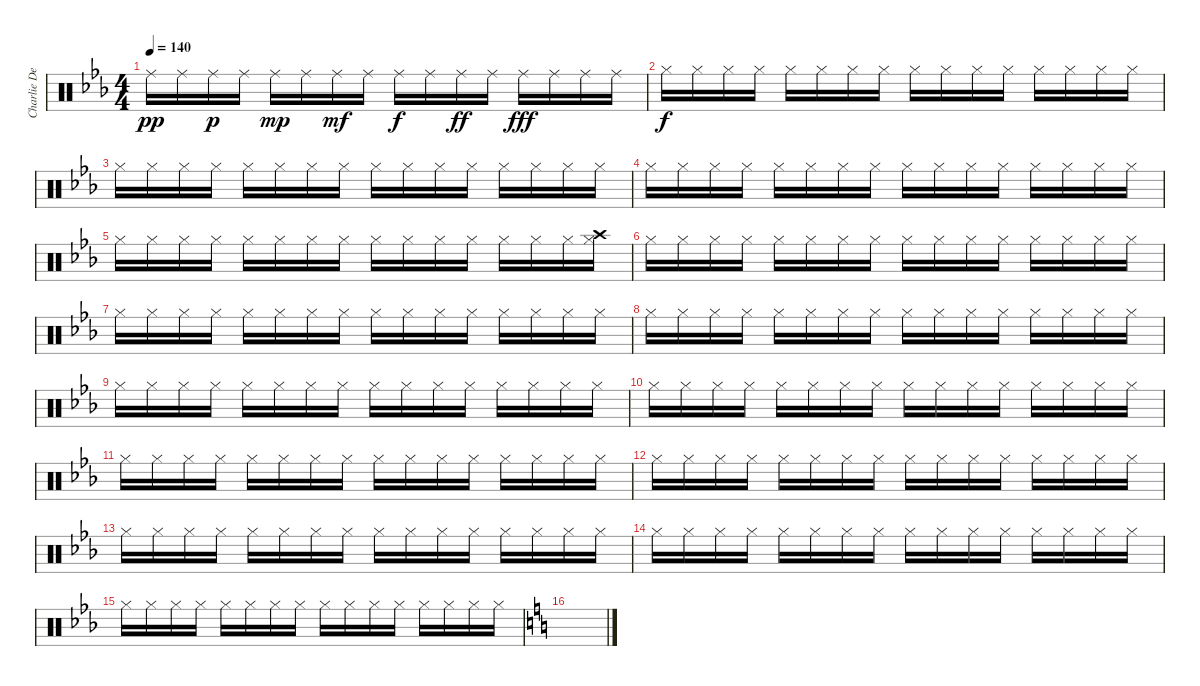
\track ("Charlie Devil" "Charlie De") {instrument percussion}
\staff {score}
\articulation defaults
\ts (4 4)
\tempo 140
\clef neutral
\ks eb "Ride (middle)".16{dy pp} "Ride (middle)".16 "Ride (middle)".16{dy p} "Ride (middle)".16 "Ride (middle)".16{dy mp} "Ride (middle)".16 "Ride (middle)".16{dy mf} "Ride (middle)".16 "Ride (middle)".16{dy f} "Ride (middle)".16 "Ride (middle)".16{dy ff} "Ride (middle)".16 "Ride (middle)".16{dy fff} "Ride (middle)".16 "Ride (middle)".16 "Ride (middle)".16
|
"Hi-Hat (closed)".16{dy f} "Hi-Hat (closed)".16 "Hi-Hat (closed)".16 "Hi-Hat (closed)".16 "Hi-Hat (closed)".16 "Hi-Hat (closed)".16 "Hi-Hat (closed)".16 "Hi-Hat (closed)".16 "Hi-Hat (closed)".16 "Hi-Hat (closed)".16 "Hi-Hat (closed)".16 "Hi-Hat (closed)".16 "Hi-Hat (closed)".16 "Hi-Hat (closed)".16 "Hi-Hat (closed)".16 "Hi-Hat (closed)".16 |
"Hi-Hat (closed)".16 "Hi-Hat (closed)".16 "Hi-Hat (closed)".16 "Hi-Hat (closed)".16 "Hi-Hat (closed)".16 "Hi-Hat (closed)".16 "Hi-Hat (closed)".16 "Hi-Hat (closed)".16 "Hi-Hat (closed)".16 "Hi-Hat (closed)".16 "Hi-Hat (closed)".16 "Hi-Hat (closed)".16 "Hi-Hat (closed)".16 "Hi-Hat (closed)".16 "Hi-Hat (closed)".16 "Hi-Hat (closed)".16 |
"Hi-Hat (closed)".16 "Hi-Hat (closed)".16 "Hi-Hat (closed)".16 "Hi-Hat (closed)".16 "Hi-Hat (closed)".16 "Hi-Hat (closed)".16 "Hi-Hat (closed)".16 "Hi-Hat (closed)".16 "Hi-Hat (closed)".16 "Hi-Hat (closed)".16 "Hi-Hat (closed)".16 "Hi-Hat (closed)".16 "Hi-Hat (closed)".16 "Hi-Hat (closed)".16 "Hi-Hat (closed)".16 "Hi-Hat (closed)".16 |
"Hi-Hat (closed)".16 "Hi-Hat (closed)".16 "Hi-Hat (closed)".16 "Hi-Hat (closed)".16 "Hi-Hat (closed)".16 "Hi-Hat (closed)".16 "Hi-Hat (closed)".16 "Hi-Hat (closed)".16 "Hi-Hat (closed)".16 "Hi-Hat (closed)".16 "Hi-Hat (closed)".16 "Hi-Hat (closed)".16 "Hi-Hat (closed)".16 "Hi-Hat (closed)".16 "Hi-Hat (closed)".16 ("Hi-Hat (closed)" "Crash high (hit)").16 |
"Hi-Hat (closed)".16 "Hi-Hat (closed)".16 "Hi-Hat (closed)".16 "Hi-Hat (closed)".16 "Hi-Hat (closed)".16 "Hi-Hat (closed)".16 "Hi-Hat (closed)".16 "Hi-Hat (closed)".16 "Hi-Hat (closed)".16 "Hi-Hat (closed)".16 "Hi-Hat (closed)".16 "Hi-Hat (closed)".16 "Hi-Hat (closed)".16 "Hi-Hat (closed)".16 "Hi-Hat (closed)".16 "Hi-Hat (closed)".16 |
"Hi-Hat (closed)".16 "Hi-Hat (closed)".16 "Hi-Hat (closed)".16 "Hi-Hat (closed)".16 "Hi-Hat (closed)".16 "Hi-Hat (closed)".16 "Hi-Hat (closed)".16 "Hi-Hat (closed)".16 "Hi-Hat (closed)".16 "Hi-Hat (closed)".16 "Hi-Hat (closed)".16 "Hi-Hat (closed)".16 "Hi-Hat (closed)".16 "Hi-Hat (closed)".16 "Hi-Hat (closed)".16 "Hi-Hat (closed)".16 |
"Hi-Hat (closed)".16 "Hi-Hat (closed)".16 "Hi-Hat (closed)".16 "Hi-Hat (closed)".16 "Hi-Hat (closed)".16 "Hi-Hat (closed)".16 "Hi-Hat (closed)".16 "Hi-Hat (closed)".16 "Hi-Hat (closed)".16 "Hi-Hat (closed)".16 "Hi-Hat (closed)".16 "Hi-Hat (closed)".16 "Hi-Hat (closed)".16 "Hi-Hat (closed)".16 "Hi-Hat (closed)".16 "Hi-Hat (closed)".16 |
"Hi-Hat (closed)".16 "Hi-Hat (closed)".16 "Hi-Hat (closed)".16 "Hi-Hat (closed)".16 "Hi-Hat (closed)".16 "Hi-Hat (closed)".16 "Hi-Hat (closed)".16 "Hi-Hat (closed)".16 "Hi-Hat (closed)".16 "Hi-Hat (closed)".16 "Hi-Hat (closed)".16 "Hi-Hat (closed)".16 "Hi-Hat (closed)".16 "Hi-Hat (closed)".16 "Hi-Hat (closed)".16 "Hi-Hat (closed)".16 |
"Hi-Hat (closed)".16 "Hi-Hat (closed)".16 "Hi-Hat (closed)".16 "Hi-Hat (closed)".16 "Hi-Hat (closed)".16 "Hi-Hat (closed)".16 "Hi-Hat (closed)".16 "Hi-Hat (closed)".16 "Hi-Hat (closed)".16 "Hi-Hat (closed)".16 "Hi-Hat (closed)".16 "Hi-Hat (closed)".16 "Hi-Hat (closed)".16 "Hi-Hat (closed)".16 "Hi-Hat (closed)".16 "Hi-Hat (closed)".16 |
"Hi-Hat (closed)".16 "Hi-Hat (closed)".16 "Hi-Hat (closed)".16 "Hi-Hat (closed)".16 "Hi-Hat (closed)".16 "Hi-Hat (closed)".16 "Hi-Hat (closed)".16 "Hi-Hat (closed)".16 "Hi-Hat (closed)".16 "Hi-Hat (closed)".16 "Hi-Hat (closed)".16 "Hi-Hat (closed)".16 "Hi-Hat (closed)".16 "Hi-Hat (closed)".16 "Hi-Hat (closed)".16 "Hi-Hat (closed)".16 |
"Hi-Hat (closed)".16 "Hi-Hat (closed)".16 "Hi-Hat (closed)".16 "Hi-Hat (closed)".16 "Hi-Hat (closed)".16 "Hi-Hat (closed)".16 "Hi-Hat (closed)".16 "Hi-Hat (closed)".16 "Hi-Hat (closed)".16 "Hi-Hat (closed)".16 "Hi-Hat (closed)".16 "Hi-Hat (closed)".16 "Hi-Hat (closed)".16 "Hi-Hat (closed)".16 "Hi-Hat (closed)".16 "Hi-Hat (closed)".16 |
"Hi-Hat (closed)".16 "Hi-Hat (closed)".16 "Hi-Hat (closed)".16 "Hi-Hat (closed)".16 "Hi-Hat (closed)".16 "Hi-Hat (closed)".16 "Hi-Hat (closed)".16 "Hi-Hat (closed)".16 "Hi-Hat (closed)".16 "Hi-Hat (closed)".16 "Hi-Hat (closed)".16 "Hi-Hat (closed)".16 "Hi-Hat (closed)".16 "Hi-Hat (closed)".16 "Hi-Hat (closed)".16 "Hi-Hat (closed)".16 |
"Hi-Hat (closed)".16 "Hi-Hat (closed)".16 "Hi-Hat (closed)".16 "Hi-Hat (closed)".16 "Hi-Hat (closed)".16 "Hi-Hat (closed)".16 "Hi-Hat (closed)".16 "Hi-Hat (closed)".16 "Hi-Hat (closed)".16 "Hi-Hat (closed)".16 "Hi-Hat (closed)".16 "Hi-Hat (closed)".16 "Hi-Hat (closed)".16 "Hi-Hat (closed)".16 "Hi-Hat (closed)".16 "Hi-Hat (closed)".16 |
"Hi-Hat (closed)".16 "Hi-Hat (closed)".16 "Hi-Hat (closed)".16 "Hi-Hat (closed)".16 "Hi-Hat (closed)".16 "Hi-Hat (closed)".16 "Hi-Hat (closed)".16 "Hi-Hat (closed)".16 "Hi-Hat (closed)".16 "Hi-Hat (closed)".16 "Hi-Hat (closed)".16 "Hi-Hat (closed)".16 "Hi-Hat (closed)".16 "Hi-Hat (closed)".16 "Hi-Hat (closed)".16 "Hi-Hat (closed)".16 |
\ks c
